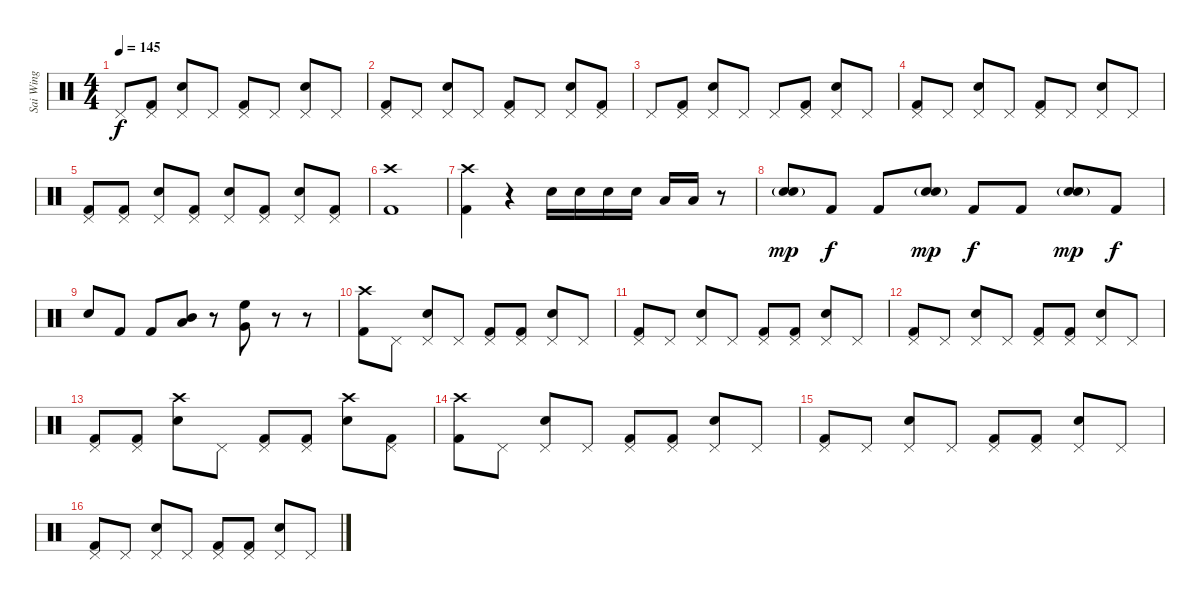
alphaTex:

\track ("Sai Wing" "Sai Wing") {instrument percussion}
\staff {score}
\articulation defaults
\ts (4 4)
\tempo 145
\clef neutral
\ks c "Pedal Hi-Hat (hit)".8{dy f}
("Pedal Hi-Hat (hit)" "Kick (hit) 2").8 ("Pedal Hi-Hat (hit)" "Snare (hit) 2").8 "Pedal Hi-Hat (hit)".8 ("Pedal Hi-Hat (hit)" "Kick (hit) 2").8 "Pedal Hi-Hat (hit)".8 ("Pedal Hi-Hat (hit)" "Snare (hit) 2").8 "Pedal Hi-Hat (hit)".8 |
("Pedal Hi-Hat (hit)" "Kick (hit) 2").8 "Pedal Hi-Hat (hit)".8 ("Pedal Hi-Hat (hit)" "Snare (hit) 2").8 "Pedal Hi-Hat (hit)".8 ("Pedal Hi-Hat (hit)" "Kick (hit) 2").8 "Pedal Hi-Hat (hit)".8 ("Pedal Hi-Hat (hit)" "Snare (hit) 2").8 ("Pedal Hi-Hat (hit)" "Kick (hit) 2").8 |
"Pedal Hi-Hat (hit)".8 ("Pedal Hi-Hat (hit)" "Kick (hit) 2").8 ("Pedal Hi-Hat (hit)" "Snare (hit) 2").8 "Pedal Hi-Hat (hit)".8 "Pedal Hi-Hat (hit)".8 ("Pedal Hi-Hat (hit)" "Kick (hit) 2").8 ("Pedal Hi-Hat (hit)" "Snare (hit) 2").8 "Pedal Hi-Hat (hit)".8 |
("Pedal Hi-Hat (hit)" "Kick (hit) 2").8 "Pedal Hi-Hat (hit)".8 ("Pedal Hi-Hat (hit)" "Snare (hit) 2").8 "Pedal Hi-Hat (hit)".8 ("Pedal Hi-Hat (hit)" "Kick (hit) 2").8 "Pedal Hi-Hat (hit)".8 ("Pedal Hi-Hat (hit)" "Snare (hit) 2").8 "Pedal Hi-Hat (hit)".8 |
("Pedal Hi-Hat (hit)" "Kick (hit) 2").8 ("Pedal Hi-Hat (hit)" "Kick (hit) 2").8 ("Pedal Hi-Hat (hit)" "Snare (hit) 2").8 ("Pedal Hi-Hat (hit)" "Kick (hit) 2").8 ("Pedal Hi-Hat (hit)" "Snare (hit) 2").8 ("Pedal Hi-Hat (hit)" "Kick (hit) 2").8 ("Pedal Hi-Hat (hit)" "Snare (hit) 2").8 ("Pedal Hi-Hat (hit)" "Kick (hit) 2").8 |
("Crash high (hit)" "Kick (hit) 2").1 |
("Crash high (hit)" "Kick (hit) 2").4 r.4 "Snare (hit) 2".16 "Snare (hit) 2".16 "Snare (hit) 2".16 "Snare (hit) 2".16 "Low Tom (hit)".16 "Low Tom (hit)".16 r.8 |
("Snare (hit) 2"{g} "Snare (hit) 2").8{dy mp} "Kick (hit) 2".8{dy f} "Kick (hit) 2".8 ("Snare (hit) 2"{g} "Snare (hit) 2").8{dy mp} "Kick (hit) 2".8{dy f} "Kick (hit) 2".8 ("Snare (hit) 2"{g} "Snare (hit) 2").8{dy mp} "Kick (hit) 2".8{dy f} |
"Snare (hit) 2".8 "Kick (hit) 2".8 "Kick (hit) 2".8 ("Low Tom (hit)" "Mid Tom (hit)").8 r.8 ("High Floor Tom (hit)" "Very Low Tom (hit)").8 r.8 r.8 |
("Crash high (hit)" "Kick (hit) 2").8 "Pedal Hi-Hat (hit)".8 ("Pedal Hi-Hat (hit)" "Snare (hit) 2").8 "Pedal Hi-Hat (hit)".8 ("Pedal Hi-Hat (hit)" "Kick (hit) 2").8 ("Pedal Hi-Hat (hit)" "Kick (hit) 2").8 ("Pedal Hi-Hat (hit)" "Snare (hit) 2").8 "Pedal Hi-Hat (hit)".8 |
("Pedal Hi-Hat (hit)" "Kick (hit) 2").8 "Pedal Hi-Hat (hit)".8 ("Pedal Hi-Hat (hit)" "Snare (hit) 2").8 "Pedal Hi-Hat (hit)".8 ("Pedal Hi-Hat (hit)" "Kick (hit) 2").8 ("Pedal Hi-Hat (hit)" "Kick (hit) 2").8 ("Pedal Hi-Hat (hit)" "Snare (hit) 2").8 "Pedal Hi-Hat (hit)".8 |
("Pedal Hi-Hat (hit)" "Kick (hit) 2").8 "Pedal Hi-Hat (hit)".8 ("Pedal Hi-Hat (hit)" "Snare (hit) 2").8 "Pedal Hi-Hat (hit)".8 ("Pedal Hi-Hat (hit)" "Kick (hit) 2").8 ("Pedal Hi-Hat (hit)" "Kick (hit) 2").8 ("Pedal Hi-Hat (hit)" "Snare (hit) 2").8 "Pedal Hi-Hat (hit)".8 |
("Pedal Hi-Hat (hit)" "Kick (hit) 2").8 ("Pedal Hi-Hat (hit)" "Kick (hit) 2").8 ("Crash high (hit)" "Snare (hit) 2").8 "Pedal Hi-Hat (hit)".8 ("Pedal Hi-Hat (hit)" "Kick (hit) 2").8 ("Pedal Hi-Hat (hit)" "Kick (hit) 2").8 ("Crash high (hit)" "Snare (hit) 2").8 ("Pedal Hi-Hat (hit)" "Kick (hit) 2").8 |
("Crash high (hit)" "Kick (hit) 2").8 "Pedal Hi-Hat (hit)".8 ("Pedal Hi-Hat (hit)" "Snare (hit) 2").8 "Pedal Hi-Hat (hit)".8 ("Pedal Hi-Hat (hit)" "Kick (hit) 2").8 ("Pedal Hi-Hat (hit)" "Kick (hit) 2").8 ("Pedal Hi-Hat (hit)" "Snare (hit) 2").8 "Pedal Hi-Hat (hit)".8 |
("Pedal Hi-Hat (hit)" "Kick (hit) 2").8 "Pedal Hi-Hat (hit)".8 ("Pedal Hi-Hat (hit)" "Snare (hit) 2").8 "Pedal Hi-Hat (hit)".8 ("Pedal Hi-Hat (hit)" "Kick (hit) 2").8 ("Pedal Hi-Hat (hit)" "Kick (hit) 2").8 ("Pedal Hi-Hat (hit)" "Snare (hit) 2").8 "Pedal Hi-Hat (hit)".8 |
("Pedal Hi-Hat (hit)" "Kick (hit) 2").8 "Pedal Hi-Hat (hit)".8 ("Pedal Hi-Hat (hit)" "Snare (hit) 2").8 "Pedal Hi-Hat (hit)".8 ("Pedal Hi-Hat (hit)" "Kick (hit) 2").8 ("Pedal Hi-Hat (hit)" "Kick (hit) 2").8 ("Pedal Hi-Hat (hit)" "Snare (hit) 2").8 "Pedal Hi-Hat (hit)".8
